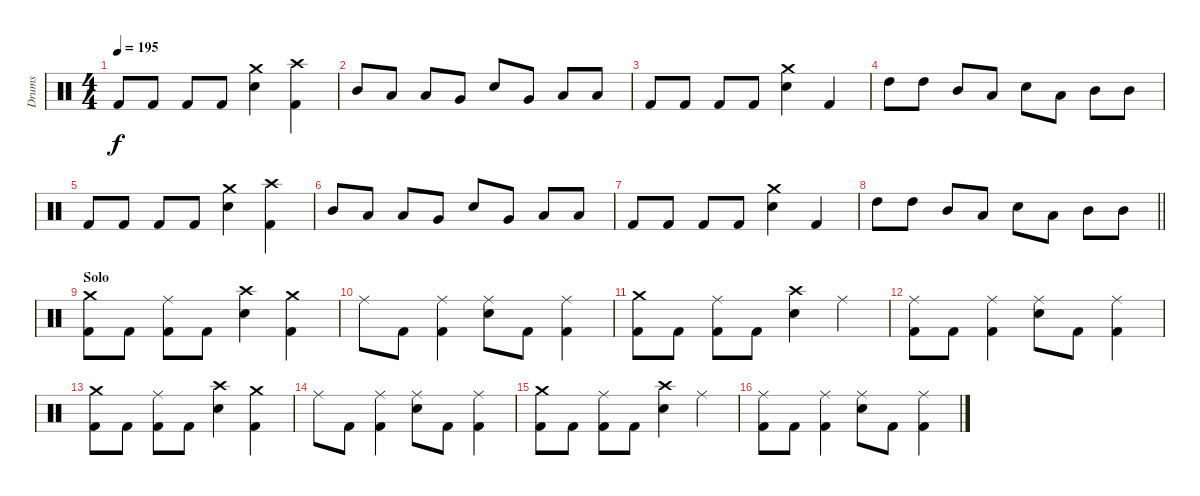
\track ("Drums" "Drums") {instrument percussion}
\staff {score}
\articulation defaults
\ts (4 4)
\tempo 195
\clef neutral
\ks c "Kick (hit) 2".8{dy f} "Kick (hit) 2".8 "Kick (hit) 2".8 "Kick (hit) 2".8
("Crash medium (hit)" "Electric Snare (hit)").4 ("Crash high (hit)" "Kick (hit) 2").4 |
"Mid Tom (hit)".8 "Low Tom (hit)".8 "Low Tom (hit)".8 "Very Low Tom (hit)".8 "Electric Snare (hit)".8 "Very Low Tom (hit)".8 "Low Tom (hit)".8 "Low Tom (hit)".8 |
"Kick (hit) 2".8 "Kick (hit) 2".8 "Kick (hit) 2".8 "Kick (hit) 2".8 ("Crash medium (hit)" "Electric Snare (hit)").4 "Kick (hit) 2".4 |
"High Tom (hit)".8 "High Tom (hit)".8 "Mid Tom (hit)".8 "Low Tom (hit)".8 "Electric Snare (hit)".8 "Low Tom (hit)".8 "Mid Tom (hit)".8 "Mid Tom (hit)".8 |
"Kick (hit) 2".8 "Kick (hit) 2".8 "Kick (hit) 2".8 "Kick (hit) 2".8 ("Crash medium (hit)" "Electric Snare (hit)").4 ("Crash high (hit)" "Kick (hit) 2").4 |
"Mid Tom (hit)".8 "Low Tom (hit)".8 "Low Tom (hit)".8 "Very Low Tom (hit)".8 "Electric Snare (hit)".8 "Very Low Tom (hit)".8 "Low Tom (hit)".8 "Low Tom (hit)".8 |
"Kick (hit) 2".8 "Kick (hit) 2".8 "Kick (hit) 2".8 "Kick (hit) 2".8 ("Crash medium (hit)" "Electric Snare (hit)").4 "Kick (hit) 2".4 |
\barLineRight lightlight "High Tom (hit)".8 "High Tom (hit)".8 "Mid Tom (hit)".8 "Low Tom (hit)".8 "Electric Snare (hit)".8 "Low Tom (hit)".8 "Mid Tom (hit)".8 "Mid Tom (hit)".8
|
\section ("" "Solo")
("Crash medium (hit)" "Kick (hit) 2").8 "Kick (hit) 2".8 ("Ride (middle)" "Kick (hit) 2").8 "Kick (hit) 2".8 ("Crash high (hit)" "Electric Snare (hit)").4 ("Crash medium (hit)" "Kick (hit) 2").4 |
"Ride (middle)".8 "Kick (hit) 2".8 ("Ride (middle)" "Kick (hit) 2").4 ("Ride (middle)" "Electric Snare (hit)").8 "Kick (hit) 2".8 ("Ride (middle)" "Kick (hit) 2").4 |
("Crash medium (hit)" "Kick (hit) 2").8 "Kick (hit) 2".8 ("Ride (middle)" "Kick (hit) 2").8 "Kick (hit) 2".8 ("Crash high (hit)" "Electric Snare (hit)").4 "Ride (middle)".4 |
("Ride (middle)" "Kick (hit) 2").8 "Kick (hit) 2".8 ("Ride (middle)" "Kick (hit) 2").4 ("Ride (middle)" "Electric Snare (hit)").8 "Kick (hit) 2".8 ("Ride (middle)" "Kick (hit) 2").4 |
("Crash medium (hit)" "Kick (hit) 2").8 "Kick (hit) 2".8 ("Ride (middle)" "Kick (hit) 2").8 "Kick (hit) 2".8 ("Crash high (hit)" "Electric Snare (hit)").4 ("Crash medium (hit)" "Kick (hit) 2").4 |
"Ride (middle)".8 "Kick (hit) 2".8 ("Ride (middle)" "Kick (hit) 2").4 ("Ride (middle)" "Electric Snare (hit)").8 "Kick (hit) 2".8 ("Ride (middle)" "Kick (hit) 2").4 |
("Crash medium (hit)" "Kick (hit) 2").8 "Kick (hit) 2".8 ("Ride (middle)" "Kick (hit) 2").8 "Kick (hit) 2".8 ("Crash high (hit)" "Electric Snare (hit)").4 "Ride (middle)".4 |
("Ride (middle)" "Kick (hit) 2").8 "Kick (hit) 2".8 ("Ride (middle)" "Kick (hit) 2").4 ("Ride (middle)" "Electric Snare (hit)").8 "Kick (hit) 2".8 ("Ride (middle)" "Kick (hit) 2").4
